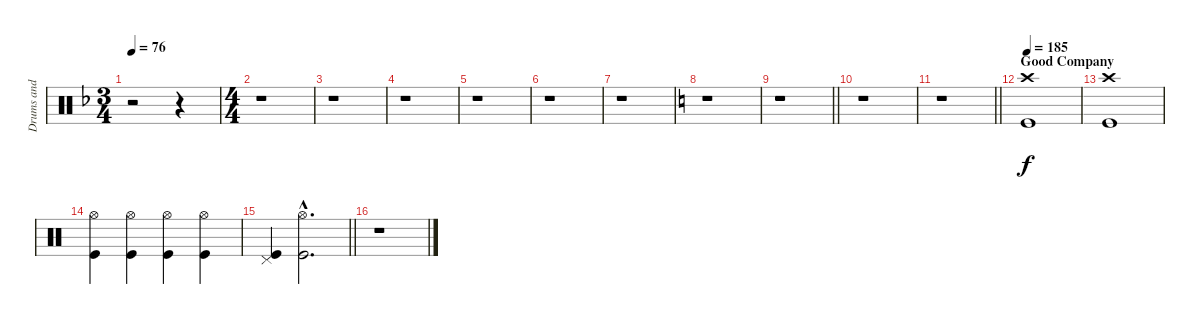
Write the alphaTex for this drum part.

\track ("Drums and percussion" "Drums and ") {instrument percussion}
\staff {score}
\articulation defaults
\ts (3 4)
\tempo 76
\clef neutral
\ks f
r.2{dy f} r.4 |
\ts (4 4)
r.1 |
r.1 |
r.1 |
r.1 |
r.1 |
r.1 |
\ks c
r.1 |
\barLineRight lightlight
r.1 |
r.1 |
\barLineRight lightlight
r.1 |
\section ("" "Good Company")
\tempo 185
("Crash high (hit)" "Kick (hit)").1 |
("Crash high (hit)" "Kick (hit)").1 |
("Hi-Hat (open)" "Kick (hit)").4 ("Hi-Hat (open)" "Kick (hit)").4 ("Hi-Hat (open)" "Kick (hit)").4 ("Hi-Hat (open)" "Kick (hit)").4 |
\barLineRight lightlight
("Pedal Hi-Hat (hit)" "Kick (hit)").4 ("Hi-Hat (open)"{hac} "Kick (hit)"{hac}).2{d} |
r.1
